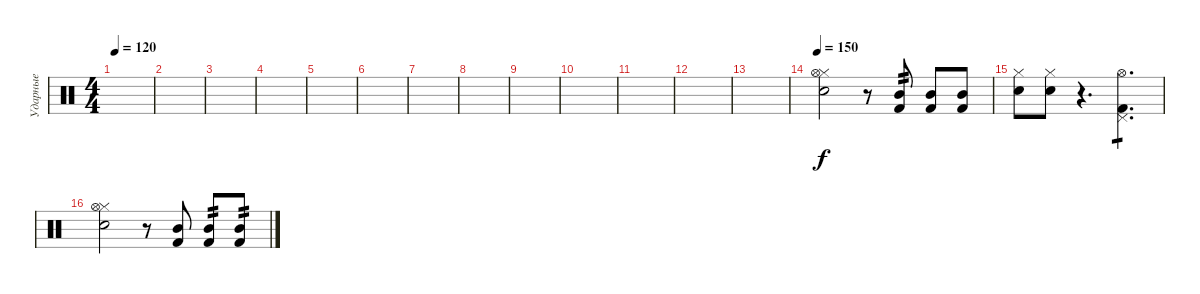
\track ("Ударные" "Ударные") {instrument percussion}
\staff {score}
\articulation defaults
\ts (4 4)
\tempo 120
\clef neutral
\ks c
|
|
|
|
|
|
|
|
|
|
|
|
|
\tempo 150
("Snare (hit) 2" "Hi-Hat (closed)" "Hi-Hat (open)").2 r.8 ("Mid Tom (hit)" "Kick (hit) 2").8{tp 2} ("Mid Tom (hit)" "Kick (hit) 2").8 ("Mid Tom (hit)" "Kick (hit) 2").8 |
("Snare (hit) 2" "Hi-Hat (closed)").8 ("Snare (hit) 2" "Hi-Hat (closed)").8 r.4{d} ("Pedal Hi-Hat (hit)" "Kick (hit) 2" "Hi-Hat (open)").4{d tp 1} |
("Snare (hit) 2" "Hi-Hat (closed)" "Hi-Hat (open)").2 r.8 ("Mid Tom (hit)" "Kick (hit) 2").8 ("Mid Tom (hit)" "Kick (hit) 2").8{tp 2} ("Mid Tom (hit)" "Kick (hit) 2").8{tp 2}
